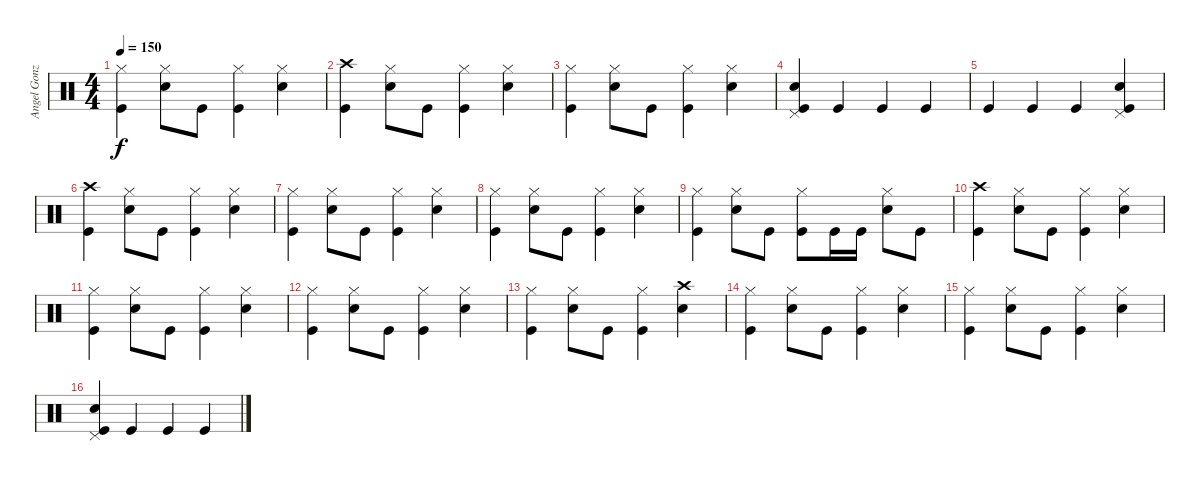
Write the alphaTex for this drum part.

\track ("Angel González - Batería" "Angel Gonz") {instrument percussion}
\staff {score}
\articulation defaults
\ts (4 4)
\tempo 150
\clef neutral
\ks c
("Hi-Hat (closed)" "Kick (hit)").4{dy f} ("Hi-Hat (closed)" "Electric Snare (hit)").8 "Kick (hit)".8 ("Hi-Hat (closed)" "Kick (hit)").4 ("Hi-Hat (closed)" "Electric Snare (hit)").4 |
("Crash high (hit)" "Kick (hit)").4 ("Hi-Hat (closed)" "Electric Snare (hit)").8 "Kick (hit)".8 ("Hi-Hat (closed)" "Kick (hit)").4 ("Hi-Hat (closed)" "Electric Snare (hit)").4 |
("Hi-Hat (closed)" "Kick (hit)").4 ("Hi-Hat (closed)" "Electric Snare (hit)").8 "Kick (hit)".8 ("Hi-Hat (closed)" "Kick (hit)").4 ("Hi-Hat (closed)" "Electric Snare (hit)").4 |
("Electric Snare (hit)" "Pedal Hi-Hat (hit)" "Kick (hit)").4 "Kick (hit)".4 "Kick (hit)".4 "Kick (hit)".4 |
"Kick (hit)".4 "Kick (hit)".4 "Kick (hit)".4 ("Electric Snare (hit)" "Pedal Hi-Hat (hit)" "Kick (hit)").4 |
("Crash high (hit)" "Kick (hit)").4 ("Hi-Hat (closed)" "Electric Snare (hit)").8 "Kick (hit)".8 ("Hi-Hat (closed)" "Kick (hit)").4 ("Hi-Hat (closed)" "Electric Snare (hit)").4 |
("Hi-Hat (closed)" "Kick (hit)").4 ("Hi-Hat (closed)" "Electric Snare (hit)").8 "Kick (hit)".8 ("Hi-Hat (closed)" "Kick (hit)").4 ("Hi-Hat (closed)" "Electric Snare (hit)").4 |
("Hi-Hat (closed)" "Kick (hit)").4 ("Hi-Hat (closed)" "Electric Snare (hit)").8 "Kick (hit)".8 ("Hi-Hat (closed)" "Kick (hit)").4 ("Hi-Hat (closed)" "Electric Snare (hit)").4 |
("Hi-Hat (closed)" "Kick (hit)").4 ("Hi-Hat (closed)" "Electric Snare (hit)").8 "Kick (hit)".8 ("Hi-Hat (closed)" "Kick (hit)").8 "Kick (hit)".16 "Kick (hit)".16 ("Hi-Hat (closed)" "Electric Snare (hit)").8 "Kick (hit)".8 |
("Crash high (hit)" "Kick (hit)").4 ("Hi-Hat (closed)" "Electric Snare (hit)").8 "Kick (hit)".8 ("Hi-Hat (closed)" "Kick (hit)").4 ("Hi-Hat (closed)" "Electric Snare (hit)").4 |
("Hi-Hat (closed)" "Kick (hit)").4 ("Hi-Hat (closed)" "Electric Snare (hit)").8 "Kick (hit)".8 ("Hi-Hat (closed)" "Kick (hit)").4 ("Hi-Hat (closed)" "Electric Snare (hit)").4 |
("Hi-Hat (closed)" "Kick (hit)").4 ("Hi-Hat (closed)" "Electric Snare (hit)").8 "Kick (hit)".8 ("Hi-Hat (closed)" "Kick (hit)").4 ("Hi-Hat (closed)" "Electric Snare (hit)").4 |
("Hi-Hat (closed)" "Kick (hit)").4 ("Hi-Hat (closed)" "Electric Snare (hit)").8 "Kick (hit)".8 ("Hi-Hat (closed)" "Kick (hit)").4 ("Crash high (hit)" "Electric Snare (hit)").4 |
("Hi-Hat (closed)" "Kick (hit)").4 ("Hi-Hat (closed)" "Electric Snare (hit)").8 "Kick (hit)".8 ("Hi-Hat (closed)" "Kick (hit)").4 ("Hi-Hat (closed)" "Electric Snare (hit)").4 |
("Hi-Hat (closed)" "Kick (hit)").4 ("Hi-Hat (closed)" "Electric Snare (hit)").8 "Kick (hit)".8 ("Hi-Hat (closed)" "Kick (hit)").4 ("Hi-Hat (closed)" "Electric Snare (hit)").4 |
("Electric Snare (hit)" "Pedal Hi-Hat (hit)" "Kick (hit)").4 "Kick (hit)".4 "Kick (hit)".4 "Kick (hit)".4
